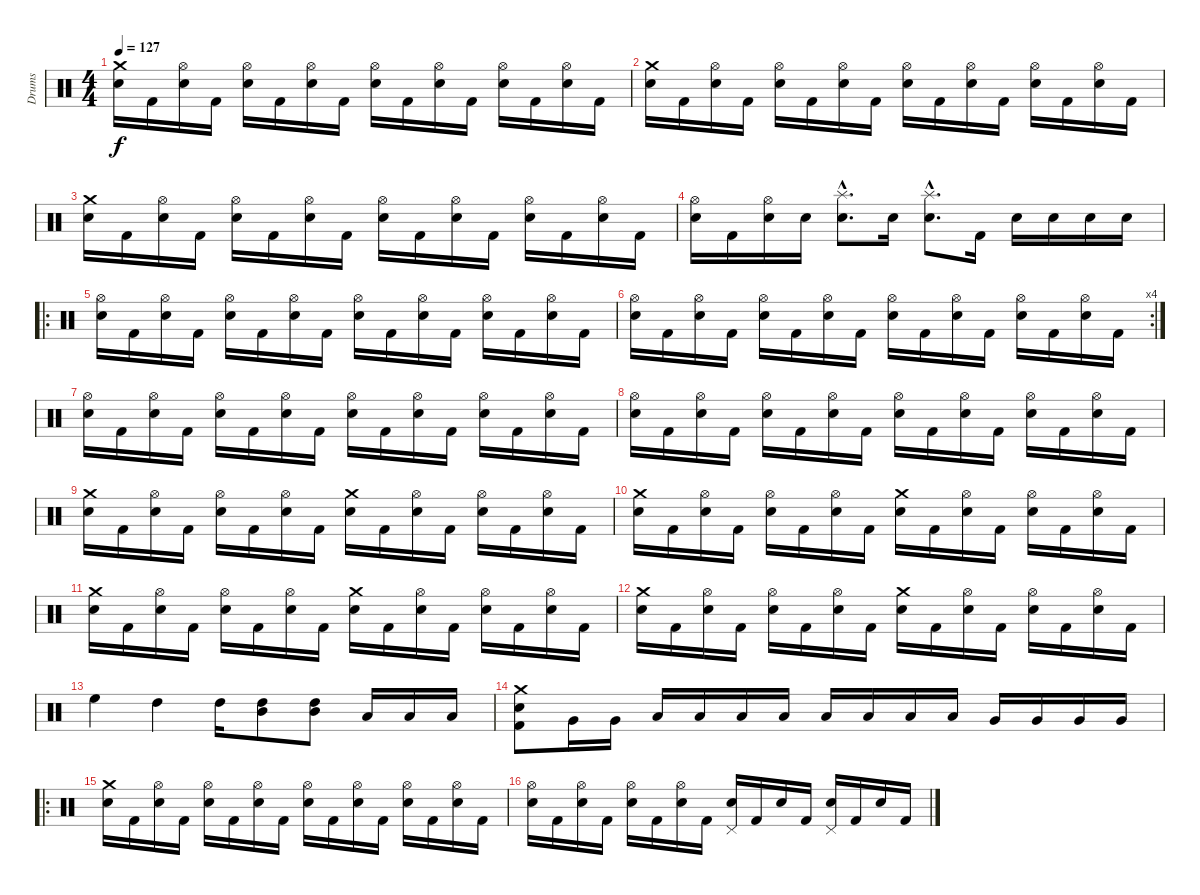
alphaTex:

\track ("Drums" "Drums") {instrument percussion}
\staff {score}
\articulation defaults
\ts (4 4)
\tempo 127
\clef neutral
\ks c
("Crash medium (hit)" "Snare (hit) 2").16{dy f} "Kick (hit) 2".16 ("Hi-Hat (open)" "Snare (hit) 2").16 "Kick (hit) 2".16 ("Hi-Hat (open)" "Snare (hit) 2").16 "Kick (hit) 2".16 ("Hi-Hat (open)" "Snare (hit) 2").16 "Kick (hit) 2".16 ("Hi-Hat (open)" "Snare (hit) 2").16 "Kick (hit) 2".16 ("Hi-Hat (open)" "Snare (hit) 2").16 "Kick (hit) 2".16 ("Hi-Hat (open)" "Snare (hit) 2").16 "Kick (hit) 2".16 ("Hi-Hat (open)" "Snare (hit) 2").16 "Kick (hit) 2".16 |
("Crash medium (hit)" "Snare (hit) 2").16 "Kick (hit) 2".16 ("Hi-Hat (open)" "Snare (hit) 2").16 "Kick (hit) 2".16 ("Hi-Hat (open)" "Snare (hit) 2").16 "Kick (hit) 2".16 ("Hi-Hat (open)" "Snare (hit) 2").16 "Kick (hit) 2".16 ("Hi-Hat (open)" "Snare (hit) 2").16 "Kick (hit) 2".16 ("Hi-Hat (open)" "Snare (hit) 2").16 "Kick (hit) 2".16 ("Hi-Hat (open)" "Snare (hit) 2").16 "Kick (hit) 2".16 ("Hi-Hat (open)" "Snare (hit) 2").16 "Kick (hit) 2".16 |
("Crash medium (hit)" "Snare (hit) 2").16 "Kick (hit) 2".16 ("Hi-Hat (open)" "Snare (hit) 2").16 "Kick (hit) 2".16 ("Hi-Hat (open)" "Snare (hit) 2").16 "Kick (hit) 2".16 ("Hi-Hat (open)" "Snare (hit) 2").16 "Kick (hit) 2".16 ("Hi-Hat (open)" "Snare (hit) 2").16 "Kick (hit) 2".16 ("Hi-Hat (open)" "Snare (hit) 2").16 "Kick (hit) 2".16 ("Hi-Hat (open)" "Snare (hit) 2").16 "Kick (hit) 2".16 ("Hi-Hat (open)" "Snare (hit) 2").16 "Kick (hit) 2".16 |
("Hi-Hat (open)" "Snare (hit) 2").16 "Kick (hit) 2".16 ("Hi-Hat (open)" "Snare (hit) 2").16 "Snare (hit) 2".16 ("Splash (hit)"{hac} "Snare (hit) 2"{hac}).8{d} "Snare (hit) 2".16 ("Splash (hit)"{hac} "Snare (hit) 2"{hac}).8{d} "Kick (hit) 2".16 "Snare (hit) 2".16 "Snare (hit) 2".16 "Snare (hit) 2".16 "Snare (hit) 2".16 |
\ro
("Hi-Hat (open)" "Snare (hit) 2").16 "Kick (hit) 2".16 ("Hi-Hat (open)" "Snare (hit) 2").16 "Kick (hit) 2".16 ("Hi-Hat (open)" "Snare (hit) 2").16 "Kick (hit) 2".16 ("Hi-Hat (open)" "Snare (hit) 2").16 "Kick (hit) 2".16 ("Hi-Hat (open)" "Snare (hit) 2").16 "Kick (hit) 2".16 ("Hi-Hat (open)" "Snare (hit) 2").16 "Kick (hit) 2".16 ("Hi-Hat (open)" "Snare (hit) 2").16 "Kick (hit) 2".16 ("Hi-Hat (open)" "Snare (hit) 2").16 "Kick (hit) 2".16 |
\rc 4
("Hi-Hat (open)" "Snare (hit) 2").16 "Kick (hit) 2".16 ("Hi-Hat (open)" "Snare (hit) 2").16 "Kick (hit) 2".16 ("Hi-Hat (open)" "Snare (hit) 2").16 "Kick (hit) 2".16 ("Hi-Hat (open)" "Snare (hit) 2").16 "Kick (hit) 2".16 ("Hi-Hat (open)" "Snare (hit) 2").16 "Kick (hit) 2".16 ("Hi-Hat (open)" "Snare (hit) 2").16 "Kick (hit) 2".16 ("Hi-Hat (open)" "Snare (hit) 2").16 "Kick (hit) 2".16 ("Hi-Hat (open)" "Snare (hit) 2").16 "Kick (hit) 2".16 |
("Hi-Hat (open)" "Snare (hit) 2").16 "Kick (hit) 2".16 ("Hi-Hat (open)" "Snare (hit) 2").16 "Kick (hit) 2".16 ("Hi-Hat (open)" "Snare (hit) 2").16 "Kick (hit) 2".16 ("Hi-Hat (open)" "Snare (hit) 2").16 "Kick (hit) 2".16 ("Hi-Hat (open)" "Snare (hit) 2").16 "Kick (hit) 2".16 ("Hi-Hat (open)" "Snare (hit) 2").16 "Kick (hit) 2".16 ("Hi-Hat (open)" "Snare (hit) 2").16 "Kick (hit) 2".16 ("Hi-Hat (open)" "Snare (hit) 2").16 "Kick (hit) 2".16 |
("Hi-Hat (open)" "Snare (hit) 2").16 "Kick (hit) 2".16 ("Hi-Hat (open)" "Snare (hit) 2").16 "Kick (hit) 2".16 ("Hi-Hat (open)" "Snare (hit) 2").16 "Kick (hit) 2".16 ("Hi-Hat (open)" "Snare (hit) 2").16 "Kick (hit) 2".16 ("Hi-Hat (open)" "Snare (hit) 2").16 "Kick (hit) 2".16 ("Hi-Hat (open)" "Snare (hit) 2").16 "Kick (hit) 2".16 ("Hi-Hat (open)" "Snare (hit) 2").16 "Kick (hit) 2".16 ("Hi-Hat (open)" "Snare (hit) 2").16 "Kick (hit) 2".16 |
("Crash medium (hit)" "Snare (hit) 2").16 "Kick (hit) 2".16 ("Hi-Hat (open)" "Snare (hit) 2").16 "Kick (hit) 2".16 ("Hi-Hat (open)" "Snare (hit) 2").16 "Kick (hit) 2".16 ("Hi-Hat (open)" "Snare (hit) 2").16 "Kick (hit) 2".16 ("Crash medium (hit)" "Snare (hit) 2").16 "Kick (hit) 2".16 ("Hi-Hat (open)" "Snare (hit) 2").16 "Kick (hit) 2".16 ("Hi-Hat (open)" "Snare (hit) 2").16 "Kick (hit) 2".16 ("Hi-Hat (open)" "Snare (hit) 2").16 "Kick (hit) 2".16 |
("Crash medium (hit)" "Snare (hit) 2").16 "Kick (hit) 2".16 ("Hi-Hat (open)" "Snare (hit) 2").16 "Kick (hit) 2".16 ("Hi-Hat (open)" "Snare (hit) 2").16 "Kick (hit) 2".16 ("Hi-Hat (open)" "Snare (hit) 2").16 "Kick (hit) 2".16 ("Crash medium (hit)" "Snare (hit) 2").16 "Kick (hit) 2".16 ("Hi-Hat (open)" "Snare (hit) 2").16 "Kick (hit) 2".16 ("Hi-Hat (open)" "Snare (hit) 2").16 "Kick (hit) 2".16 ("Hi-Hat (open)" "Snare (hit) 2").16 "Kick (hit) 2".16 |
("Crash medium (hit)" "Snare (hit) 2").16 "Kick (hit) 2".16 ("Hi-Hat (open)" "Snare (hit) 2").16 "Kick (hit) 2".16 ("Hi-Hat (open)" "Snare (hit) 2").16 "Kick (hit) 2".16 ("Hi-Hat (open)" "Snare (hit) 2").16 "Kick (hit) 2".16 ("Crash medium (hit)" "Snare (hit) 2").16 "Kick (hit) 2".16 ("Hi-Hat (open)" "Snare (hit) 2").16 "Kick (hit) 2".16 ("Hi-Hat (open)" "Snare (hit) 2").16 "Kick (hit) 2".16 ("Hi-Hat (open)" "Snare (hit) 2").16 "Kick (hit) 2".16 |
("Crash medium (hit)" "Snare (hit) 2").16 "Kick (hit) 2".16 ("Hi-Hat (open)" "Snare (hit) 2").16 "Kick (hit) 2".16 ("Hi-Hat (open)" "Snare (hit) 2").16 "Kick (hit) 2".16 ("Hi-Hat (open)" "Snare (hit) 2").16 "Kick (hit) 2".16 ("Crash medium (hit)" "Snare (hit) 2").16 "Kick (hit) 2".16 ("Hi-Hat (open)" "Snare (hit) 2").16 "Kick (hit) 2".16 ("Hi-Hat (open)" "Snare (hit) 2").16 "Kick (hit) 2".16 ("Hi-Hat (open)" "Snare (hit) 2").16 "Kick (hit) 2".16 |
"High Floor Tom (hit)".4 "High Tom (hit)".4 "High Tom (hit)".16 ("High Tom (hit)" "Mid Tom (hit)").8 ("High Tom (hit)" "Mid Tom (hit)").8 "Low Tom (hit)".16 "Low Tom (hit)".16 "Low Tom (hit)".16 |
("Crash medium (hit)" "Snare (hit) 2" "Kick (hit) 2").8 "Very Low Tom (hit)".16 "Very Low Tom (hit)".16 "Low Tom (hit)".16 "Low Tom (hit)".16 "Low Tom (hit)".16 "Low Tom (hit)".16 "Low Floor Tom (hit)".16 "Low Floor Tom (hit)".16 "Low Floor Tom (hit)".16 "Low Floor Tom (hit)".16 "Very Low Tom (hit)".16 "Very Low Tom (hit)".16 "Very Low Tom (hit)".16 "Very Low Tom (hit)".16 |
\ro
("Crash medium (hit)" "Snare (hit) 2").16 "Kick (hit) 2".16 ("Hi-Hat (open)" "Snare (hit) 2").16 "Kick (hit) 2".16 ("Hi-Hat (open)" "Snare (hit) 2").16 "Kick (hit) 2".16 ("Hi-Hat (open)" "Snare (hit) 2").16 "Kick (hit) 2".16 ("Hi-Hat (open)" "Snare (hit) 2").16 "Kick (hit) 2".16 ("Hi-Hat (open)" "Snare (hit) 2").16 "Kick (hit) 2".16 ("Hi-Hat (open)" "Snare (hit) 2").16 "Kick (hit) 2".16 ("Hi-Hat (open)" "Snare (hit) 2").16 "Kick (hit) 2".16 |
("Hi-Hat (open)" "Snare (hit) 2").16 "Kick (hit) 2".16 ("Hi-Hat (open)" "Snare (hit) 2").16 "Kick (hit) 2".16 ("Hi-Hat (open)" "Snare (hit) 2").16 "Kick (hit) 2".16 ("Hi-Hat (open)" "Snare (hit) 2").16 "Kick (hit) 2".16 ("Pedal Hi-Hat (hit)" "Snare (hit) 2").16 "Kick (hit) 2".16 "Snare (hit) 2".16 "Kick (hit) 2".16 ("Pedal Hi-Hat (hit)" "Snare (hit) 2").16 "Kick (hit) 2".16 "Snare (hit) 2".16 "Kick (hit) 2".16
